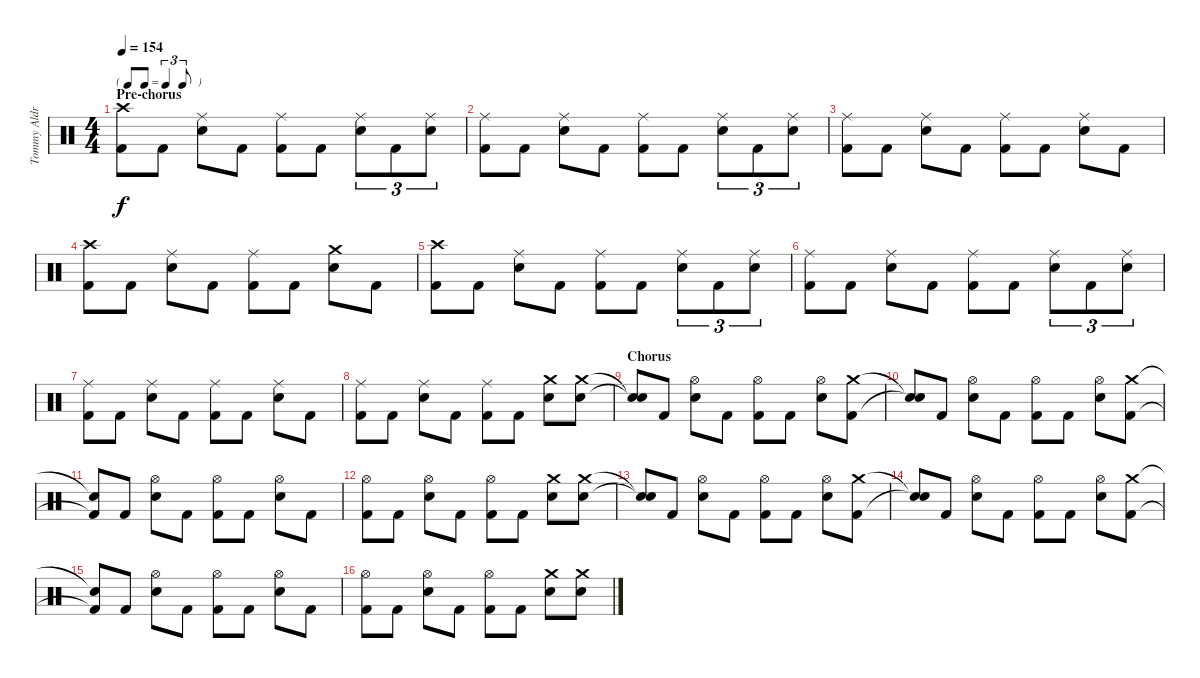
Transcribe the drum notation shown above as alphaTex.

\track ("Tommy Aldridge (Drums)" "Tommy Aldr") {instrument percussion}
\staff {score}
\articulation defaults
\ts (4 4)
\tf triplet8th
\section ("" "Pre-chorus")
\tempo 154
\clef neutral
\ks c
("Crash high (hit)" "Kick (hit) 2").8{dy f} "Kick (hit) 2".8 ("Ride (middle)" "Electric Snare (hit)").8 "Kick (hit) 2".8 ("Ride (middle)" "Kick (hit) 2").8 "Kick (hit) 2".8 ("Ride (middle)" "Electric Snare (hit)").8{tu (3 2)} "Kick (hit) 2".8{tu (3 2)} ("Ride (middle)" "Electric Snare (hit)").8{tu (3 2)} |
("Ride (middle)" "Kick (hit) 2").8 "Kick (hit) 2".8 ("Ride (middle)" "Electric Snare (hit)").8 "Kick (hit) 2".8 ("Ride (middle)" "Kick (hit) 2").8 "Kick (hit) 2".8 ("Ride (middle)" "Electric Snare (hit)").8{tu (3 2)} "Kick (hit) 2".8{tu (3 2)} ("Ride (middle)" "Electric Snare (hit)").8{tu (3 2)} |
("Ride (middle)" "Kick (hit) 2").8 "Kick (hit) 2".8 ("Ride (middle)" "Electric Snare (hit)").8 "Kick (hit) 2".8 ("Ride (middle)" "Kick (hit) 2").8 "Kick (hit) 2".8 ("Ride (middle)" "Electric Snare (hit)").8 "Kick (hit) 2".8 |
("Crash high (hit)" "Kick (hit) 2").8 "Kick (hit) 2".8 ("Ride (middle)" "Electric Snare (hit)").8 "Kick (hit) 2".8 ("Ride (middle)" "Kick (hit) 2").8 "Kick (hit) 2".8 ("Crash medium (hit)" "Electric Snare (hit)").8 "Kick (hit) 2".8 |
("Crash high (hit)" "Kick (hit) 2").8 "Kick (hit) 2".8 ("Ride (middle)" "Electric Snare (hit)").8 "Kick (hit) 2".8 ("Ride (middle)" "Kick (hit) 2").8 "Kick (hit) 2".8 ("Ride (middle)" "Electric Snare (hit)").8{tu (3 2)} "Kick (hit) 2".8{tu (3 2)} ("Ride (middle)" "Electric Snare (hit)").8{tu (3 2)} |
("Ride (middle)" "Kick (hit) 2").8 "Kick (hit) 2".8 ("Ride (middle)" "Electric Snare (hit)").8 "Kick (hit) 2".8 ("Ride (middle)" "Kick (hit) 2").8 "Kick (hit) 2".8 ("Ride (middle)" "Electric Snare (hit)").8{tu (3 2)} "Kick (hit) 2".8{tu (3 2)} ("Ride (middle)" "Electric Snare (hit)").8{tu (3 2)} |
("Ride (middle)" "Kick (hit) 2").8 "Kick (hit) 2".8 ("Ride (middle)" "Electric Snare (hit)").8 "Kick (hit) 2".8 ("Ride (middle)" "Kick (hit) 2").8 "Kick (hit) 2".8 ("Ride (middle)" "Electric Snare (hit)").8 "Kick (hit) 2".8 |
("Ride (middle)" "Kick (hit) 2").8 "Kick (hit) 2".8 ("Ride (middle)" "Electric Snare (hit)").8 "Kick (hit) 2".8 ("Ride (middle)" "Kick (hit) 2").8 "Kick (hit) 2".8 ("Crash medium (hit)" "Electric Snare (hit)").8 ("Crash medium (hit)" "Electric Snare (hit)").8 |
\section ("" "Chorus")
("Snare (hit)"{t} "Snare (hit)"{t}).8 "Kick (hit) 2".8 ("Hi-Hat (open)" "Electric Snare (hit)").8 "Kick (hit) 2".8 ("Hi-Hat (open)" "Kick (hit) 2").8 "Kick (hit) 2".8 ("Hi-Hat (open)" "Electric Snare (hit)").8 ("Crash medium (hit)" "Kick (hit) 2").8 |
("Snare (hit)"{t} "Snare (hit)"{t}).8 "Kick (hit) 2".8 ("Hi-Hat (open)" "Electric Snare (hit)").8 "Kick (hit) 2".8 ("Hi-Hat (open)" "Kick (hit) 2").8 "Kick (hit) 2".8 ("Hi-Hat (open)" "Electric Snare (hit)").8 ("Crash medium (hit)" "Kick (hit) 2").8 |
("Snare (hit)"{t} "Kick (hit) 2"{t}).8 "Kick (hit) 2".8 ("Hi-Hat (open)" "Electric Snare (hit)").8 "Kick (hit) 2".8 ("Hi-Hat (open)" "Kick (hit) 2").8 "Kick (hit) 2".8 ("Hi-Hat (open)" "Electric Snare (hit)").8 "Kick (hit) 2".8 |
("Hi-Hat (open)" "Kick (hit) 2").8 "Kick (hit) 2".8 ("Hi-Hat (open)" "Electric Snare (hit)").8 "Kick (hit) 2".8 ("Hi-Hat (open)" "Kick (hit) 2").8 "Kick (hit) 2".8 ("Crash medium (hit)" "Electric Snare (hit)").8 ("Crash medium (hit)" "Electric Snare (hit)").8 |
("Snare (hit)"{t} "Snare (hit)"{t}).8 "Kick (hit) 2".8 ("Hi-Hat (open)" "Electric Snare (hit)").8 "Kick (hit) 2".8 ("Hi-Hat (open)" "Kick (hit) 2").8 "Kick (hit) 2".8 ("Hi-Hat (open)" "Electric Snare (hit)").8 ("Crash medium (hit)" "Kick (hit) 2").8 |
("Snare (hit)"{t} "Snare (hit)"{t}).8 "Kick (hit) 2".8 ("Hi-Hat (open)" "Electric Snare (hit)").8 "Kick (hit) 2".8 ("Hi-Hat (open)" "Kick (hit) 2").8 "Kick (hit) 2".8 ("Hi-Hat (open)" "Electric Snare (hit)").8 ("Crash medium (hit)" "Kick (hit) 2").8 |
("Snare (hit)"{t} "Kick (hit) 2"{t}).8 "Kick (hit) 2".8 ("Hi-Hat (open)" "Electric Snare (hit)").8 "Kick (hit) 2".8 ("Hi-Hat (open)" "Kick (hit) 2").8 "Kick (hit) 2".8 ("Hi-Hat (open)" "Electric Snare (hit)").8 "Kick (hit) 2".8 |
("Hi-Hat (open)" "Kick (hit) 2").8 "Kick (hit) 2".8 ("Hi-Hat (open)" "Electric Snare (hit)").8 "Kick (hit) 2".8 ("Hi-Hat (open)" "Kick (hit) 2").8 "Kick (hit) 2".8 ("Crash medium (hit)" "Electric Snare (hit)").8 ("Crash medium (hit)" "Electric Snare (hit)").8
